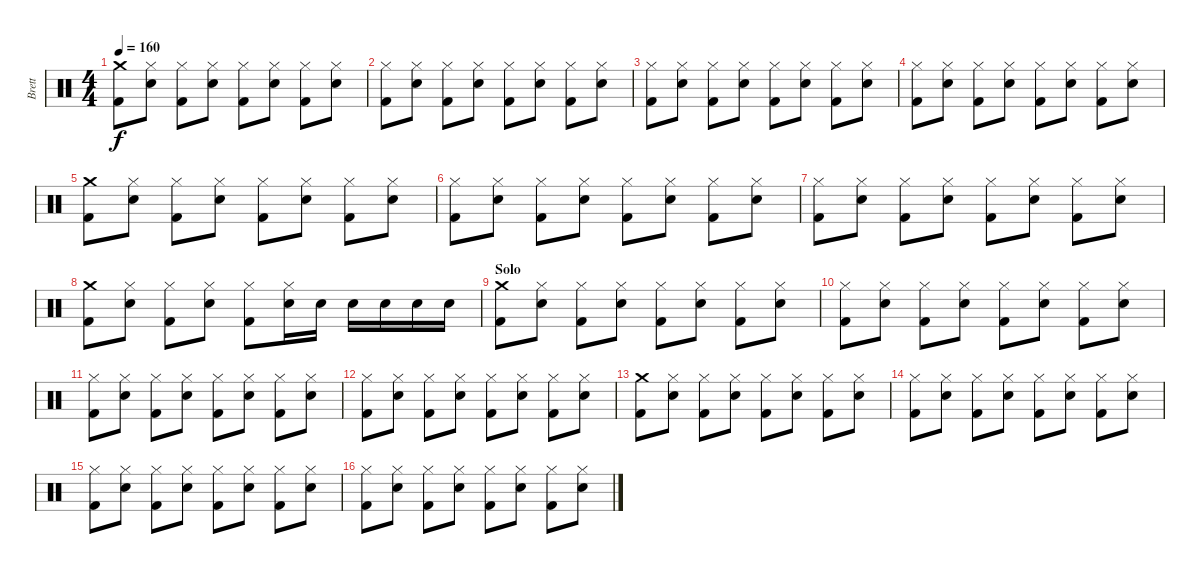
\track ("Brett" "Brett") {instrument percussion}
\staff {score}
\articulation defaults
\ts (4 4)
\tempo 160
\clef neutral
\ks c
("Crash medium (hit)" "Kick (hit) 2").8{dy f} ("Hi-Hat (closed)" "Snare (hit) 2").8 ("Hi-Hat (closed)" "Kick (hit) 2").8 ("Hi-Hat (closed)" "Snare (hit) 2").8 ("Hi-Hat (closed)" "Kick (hit) 2").8 ("Hi-Hat (closed)" "Snare (hit) 2").8 ("Hi-Hat (closed)" "Kick (hit) 2").8 ("Hi-Hat (closed)" "Snare (hit) 2").8 |
("Hi-Hat (closed)" "Kick (hit) 2").8 ("Hi-Hat (closed)" "Snare (hit) 2").8 ("Hi-Hat (closed)" "Kick (hit) 2").8 ("Hi-Hat (closed)" "Snare (hit) 2").8 ("Hi-Hat (closed)" "Kick (hit) 2").8 ("Hi-Hat (closed)" "Snare (hit) 2").8 ("Hi-Hat (closed)" "Kick (hit) 2").8 ("Hi-Hat (closed)" "Snare (hit) 2").8 |
("Hi-Hat (closed)" "Kick (hit) 2").8 ("Hi-Hat (closed)" "Snare (hit) 2").8 ("Hi-Hat (closed)" "Kick (hit) 2").8 ("Hi-Hat (closed)" "Snare (hit) 2").8 ("Hi-Hat (closed)" "Kick (hit) 2").8 ("Hi-Hat (closed)" "Snare (hit) 2").8 ("Hi-Hat (closed)" "Kick (hit) 2").8 ("Hi-Hat (closed)" "Snare (hit) 2").8 |
("Hi-Hat (closed)" "Kick (hit) 2").8 ("Hi-Hat (closed)" "Snare (hit) 2").8 ("Hi-Hat (closed)" "Kick (hit) 2").8 ("Hi-Hat (closed)" "Snare (hit) 2").8 ("Hi-Hat (closed)" "Kick (hit) 2").8 ("Hi-Hat (closed)" "Snare (hit) 2").8 ("Hi-Hat (closed)" "Kick (hit) 2").8 ("Hi-Hat (closed)" "Snare (hit) 2").8 |
("Crash medium (hit)" "Kick (hit) 2").8 ("Hi-Hat (closed)" "Snare (hit) 2").8 ("Hi-Hat (closed)" "Kick (hit) 2").8 ("Hi-Hat (closed)" "Snare (hit) 2").8 ("Hi-Hat (closed)" "Kick (hit) 2").8 ("Hi-Hat (closed)" "Snare (hit) 2").8 ("Hi-Hat (closed)" "Kick (hit) 2").8 ("Hi-Hat (closed)" "Snare (hit) 2").8 |
("Hi-Hat (closed)" "Kick (hit) 2").8 ("Hi-Hat (closed)" "Snare (hit) 2").8 ("Hi-Hat (closed)" "Kick (hit) 2").8 ("Hi-Hat (closed)" "Snare (hit) 2").8 ("Hi-Hat (closed)" "Kick (hit) 2").8 ("Hi-Hat (closed)" "Snare (hit) 2").8 ("Hi-Hat (closed)" "Kick (hit) 2").8 ("Hi-Hat (closed)" "Snare (hit) 2").8 |
("Hi-Hat (closed)" "Kick (hit) 2").8 ("Hi-Hat (closed)" "Snare (hit) 2").8 ("Hi-Hat (closed)" "Kick (hit) 2").8 ("Hi-Hat (closed)" "Snare (hit) 2").8 ("Hi-Hat (closed)" "Kick (hit) 2").8 ("Hi-Hat (closed)" "Snare (hit) 2").8 ("Hi-Hat (closed)" "Kick (hit) 2").8 ("Hi-Hat (closed)" "Snare (hit) 2").8 |
("Crash medium (hit)" "Kick (hit) 2").8 ("Hi-Hat (closed)" "Snare (hit) 2").8 ("Hi-Hat (closed)" "Kick (hit) 2").8 ("Hi-Hat (closed)" "Snare (hit) 2").8 ("Hi-Hat (closed)" "Kick (hit) 2").8 ("Hi-Hat (closed)" "Snare (hit) 2").16 "Snare (hit) 2".16 "Snare (hit) 2".16 "Snare (hit) 2".16 "Snare (hit) 2".16 "Snare (hit) 2".16 |
\section ("" "Solo")
("Crash medium (hit)" "Kick (hit) 2").8 ("Hi-Hat (closed)" "Snare (hit) 2").8 ("Hi-Hat (closed)" "Kick (hit) 2").8 ("Hi-Hat (closed)" "Snare (hit) 2").8 ("Hi-Hat (closed)" "Kick (hit) 2").8 ("Hi-Hat (closed)" "Snare (hit) 2").8 ("Hi-Hat (closed)" "Kick (hit) 2").8 ("Hi-Hat (closed)" "Snare (hit) 2").8 |
("Hi-Hat (closed)" "Kick (hit) 2").8 ("Hi-Hat (closed)" "Snare (hit) 2").8 ("Hi-Hat (closed)" "Kick (hit) 2").8 ("Hi-Hat (closed)" "Snare (hit) 2").8 ("Hi-Hat (closed)" "Kick (hit) 2").8 ("Hi-Hat (closed)" "Snare (hit) 2").8 ("Hi-Hat (closed)" "Kick (hit) 2").8 ("Hi-Hat (closed)" "Snare (hit) 2").8 |
("Hi-Hat (closed)" "Kick (hit) 2").8 ("Hi-Hat (closed)" "Snare (hit) 2").8 ("Hi-Hat (closed)" "Kick (hit) 2").8 ("Hi-Hat (closed)" "Snare (hit) 2").8 ("Hi-Hat (closed)" "Kick (hit) 2").8 ("Hi-Hat (closed)" "Snare (hit) 2").8 ("Hi-Hat (closed)" "Kick (hit) 2").8 ("Hi-Hat (closed)" "Snare (hit) 2").8 |
("Hi-Hat (closed)" "Kick (hit) 2").8 ("Hi-Hat (closed)" "Snare (hit) 2").8 ("Hi-Hat (closed)" "Kick (hit) 2").8 ("Hi-Hat (closed)" "Snare (hit) 2").8 ("Hi-Hat (closed)" "Kick (hit) 2").8 ("Hi-Hat (closed)" "Snare (hit) 2").8 ("Hi-Hat (closed)" "Kick (hit) 2").8 ("Hi-Hat (closed)" "Snare (hit) 2").8 |
("Crash medium (hit)" "Kick (hit) 2").8 ("Hi-Hat (closed)" "Snare (hit) 2").8 ("Hi-Hat (closed)" "Kick (hit) 2").8 ("Hi-Hat (closed)" "Snare (hit) 2").8 ("Hi-Hat (closed)" "Kick (hit) 2").8 ("Hi-Hat (closed)" "Snare (hit) 2").8 ("Hi-Hat (closed)" "Kick (hit) 2").8 ("Hi-Hat (closed)" "Snare (hit) 2").8 |
("Hi-Hat (closed)" "Kick (hit) 2").8 ("Hi-Hat (closed)" "Snare (hit) 2").8 ("Hi-Hat (closed)" "Kick (hit) 2").8 ("Hi-Hat (closed)" "Snare (hit) 2").8 ("Hi-Hat (closed)" "Kick (hit) 2").8 ("Hi-Hat (closed)" "Snare (hit) 2").8 ("Hi-Hat (closed)" "Kick (hit) 2").8 ("Hi-Hat (closed)" "Snare (hit) 2").8 |
("Hi-Hat (closed)" "Kick (hit) 2").8 ("Hi-Hat (closed)" "Snare (hit) 2").8 ("Hi-Hat (closed)" "Kick (hit) 2").8 ("Hi-Hat (closed)" "Snare (hit) 2").8 ("Hi-Hat (closed)" "Kick (hit) 2").8 ("Hi-Hat (closed)" "Snare (hit) 2").8 ("Hi-Hat (closed)" "Kick (hit) 2").8 ("Hi-Hat (closed)" "Snare (hit) 2").8 |
("Hi-Hat (closed)" "Kick (hit) 2").8 ("Hi-Hat (closed)" "Snare (hit) 2").8 ("Hi-Hat (closed)" "Kick (hit) 2").8 ("Hi-Hat (closed)" "Snare (hit) 2").8 ("Hi-Hat (closed)" "Kick (hit) 2").8 ("Hi-Hat (closed)" "Snare (hit) 2").8 ("Hi-Hat (closed)" "Kick (hit) 2").8 ("Hi-Hat (closed)" "Snare (hit) 2").8
